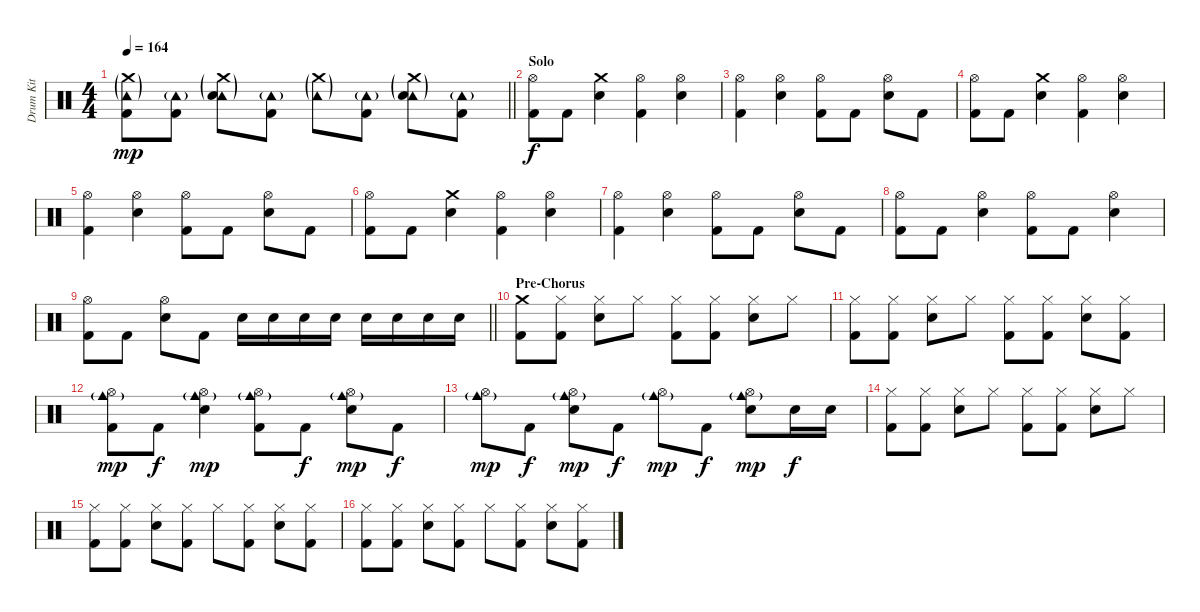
\track ("Drum Kit" "Drum Kit") {instrument percussion}
\staff {score}
\articulation defaults
\ts (4 4)
\tempo 164
\clef neutral
\barLineRight lightlight
\ks c
("Crash medium (hit)"{g} "Tambourine (hit)"{g} "Kick (hit) 2").8{dy mp} ("Tambourine (hit)"{g} "Kick (hit) 2").8 ("Crash medium (hit)"{g} "Tambourine (hit)"{g} "Electric Snare (hit)").8 ("Tambourine (hit)"{g} "Kick (hit) 2").8 ("Crash medium (hit)"{g} "Tambourine (hit)"{g}).8 ("Tambourine (hit)"{g} "Kick (hit) 2").8 ("Crash medium (hit)"{g} "Tambourine (hit)"{g} "Electric Snare (hit)").8 ("Tambourine (hit)"{g} "Kick (hit) 2").8 |
\section ("" "Solo")
("Hi-Hat (open)" "Kick (hit) 2").8{dy f} "Kick (hit) 2".8 ("Crash medium (hit)" "Electric Snare (hit)").4 ("Hi-Hat (open)" "Kick (hit) 2").4 ("Hi-Hat (open)" "Electric Snare (hit)").4 |
("Hi-Hat (open)" "Kick (hit) 2").4 ("Hi-Hat (open)" "Electric Snare (hit)").4 ("Hi-Hat (open)" "Kick (hit) 2").8 "Kick (hit) 2".8 ("Hi-Hat (open)" "Electric Snare (hit)").8 "Kick (hit) 2".8 |
("Hi-Hat (open)" "Kick (hit) 2").8 "Kick (hit) 2".8 ("Crash medium (hit)" "Electric Snare (hit)").4 ("Hi-Hat (open)" "Kick (hit) 2").4 ("Hi-Hat (open)" "Electric Snare (hit)").4 |
("Hi-Hat (open)" "Kick (hit) 2").4 ("Hi-Hat (open)" "Electric Snare (hit)").4 ("Hi-Hat (open)" "Kick (hit) 2").8 "Kick (hit) 2".8 ("Hi-Hat (open)" "Electric Snare (hit)").8 "Kick (hit) 2".8 |
("Hi-Hat (open)" "Kick (hit) 2").8 "Kick (hit) 2".8 ("Crash medium (hit)" "Electric Snare (hit)").4 ("Hi-Hat (open)" "Kick (hit) 2").4 ("Hi-Hat (open)" "Electric Snare (hit)").4 |
("Hi-Hat (open)" "Kick (hit) 2").4 ("Hi-Hat (open)" "Electric Snare (hit)").4 ("Hi-Hat (open)" "Kick (hit) 2").8 "Kick (hit) 2".8 ("Hi-Hat (open)" "Electric Snare (hit)").8 "Kick (hit) 2".8 |
("Hi-Hat (open)" "Kick (hit) 2").8 "Kick (hit) 2".8 ("Hi-Hat (open)" "Electric Snare (hit)").4 ("Hi-Hat (open)" "Kick (hit) 2").8 "Kick (hit) 2".8 ("Hi-Hat (open)" "Electric Snare (hit)").4 |
\barLineRight lightlight
("Hi-Hat (open)" "Kick (hit) 2").8 "Kick (hit) 2".8 ("Hi-Hat (open)" "Electric Snare (hit)").8 "Kick (hit) 2".8 "Electric Snare (hit)".16 "Electric Snare (hit)".16 "Electric Snare (hit)".16 "Electric Snare (hit)".16 "Electric Snare (hit)".16 "Electric Snare (hit)".16 "Electric Snare (hit)".16 "Electric Snare (hit)".16 |
\section ("" "Pre-Chorus")
("Crash medium (hit)" "Kick (hit) 2").8 ("Hi-Hat (closed)" "Kick (hit) 2").8 ("Hi-Hat (closed)" "Electric Snare (hit)").8 "Hi-Hat (closed)".8 ("Hi-Hat (closed)" "Kick (hit) 2").8 ("Hi-Hat (closed)" "Kick (hit) 2").8 ("Hi-Hat (closed)" "Electric Snare (hit)").8 "Hi-Hat (closed)".8 |
("Hi-Hat (closed)" "Kick (hit) 2").8 ("Hi-Hat (closed)" "Kick (hit) 2").8 ("Hi-Hat (closed)" "Electric Snare (hit)").8 "Hi-Hat (closed)".8 ("Hi-Hat (closed)" "Kick (hit) 2").8 ("Hi-Hat (closed)" "Kick (hit) 2").8 ("Hi-Hat (closed)" "Electric Snare (hit)").8 ("Hi-Hat (closed)" "Kick (hit) 2").8 |
("Hi-Hat (open)" "Cowbell medium (hit)"{g} "Kick (hit) 2").8{dy mp} "Kick (hit) 2".8{dy f} ("Hi-Hat (open)" "Cowbell medium (hit)"{g} "Electric Snare (hit)").4{dy mp} ("Hi-Hat (open)" "Cowbell medium (hit)"{g} "Kick (hit) 2").8 "Kick (hit) 2".8{dy f} ("Hi-Hat (open)" "Cowbell medium (hit)"{g} "Electric Snare (hit)").8{dy mp} "Kick (hit) 2".8{dy f} |
("Hi-Hat (open)" "Cowbell medium (hit)"{g}).8{dy mp} "Kick (hit) 2".8{dy f} ("Hi-Hat (open)" "Cowbell medium (hit)"{g} "Electric Snare (hit)").8{dy mp} "Kick (hit) 2".8{dy f} ("Hi-Hat (open)" "Cowbell medium (hit)"{g}).8{dy mp} "Kick (hit) 2".8{dy f} ("Hi-Hat (open)" "Cowbell medium (hit)"{g} "Electric Snare (hit)").8{dy mp} "Electric Snare (hit)".16{dy f} "Electric Snare (hit)".16 |
("Hi-Hat (closed)" "Kick (hit) 2").8 ("Hi-Hat (closed)" "Kick (hit) 2").8 ("Hi-Hat (closed)" "Electric Snare (hit)").8 "Hi-Hat (closed)".8 ("Hi-Hat (closed)" "Kick (hit) 2").8 ("Hi-Hat (closed)" "Kick (hit) 2").8 ("Hi-Hat (closed)" "Electric Snare (hit)").8 "Hi-Hat (closed)".8 |
("Hi-Hat (closed)" "Kick (hit) 2").8 ("Hi-Hat (closed)" "Kick (hit) 2").8 ("Hi-Hat (closed)" "Electric Snare (hit)").8 ("Hi-Hat (closed)" "Kick (hit) 2").8 "Hi-Hat (closed)".8 ("Hi-Hat (closed)" "Kick (hit) 2").8 ("Hi-Hat (closed)" "Electric Snare (hit)").8 ("Hi-Hat (closed)" "Kick (hit) 2").8 |
("Hi-Hat (closed)" "Kick (hit) 2").8 ("Hi-Hat (closed)" "Kick (hit) 2").8 ("Hi-Hat (closed)" "Electric Snare (hit)").8 ("Hi-Hat (closed)" "Kick (hit) 2").8 "Hi-Hat (closed)".8 ("Hi-Hat (closed)" "Kick (hit) 2").8 ("Hi-Hat (closed)" "Electric Snare (hit)").8 ("Hi-Hat (closed)" "Kick (hit) 2").8
